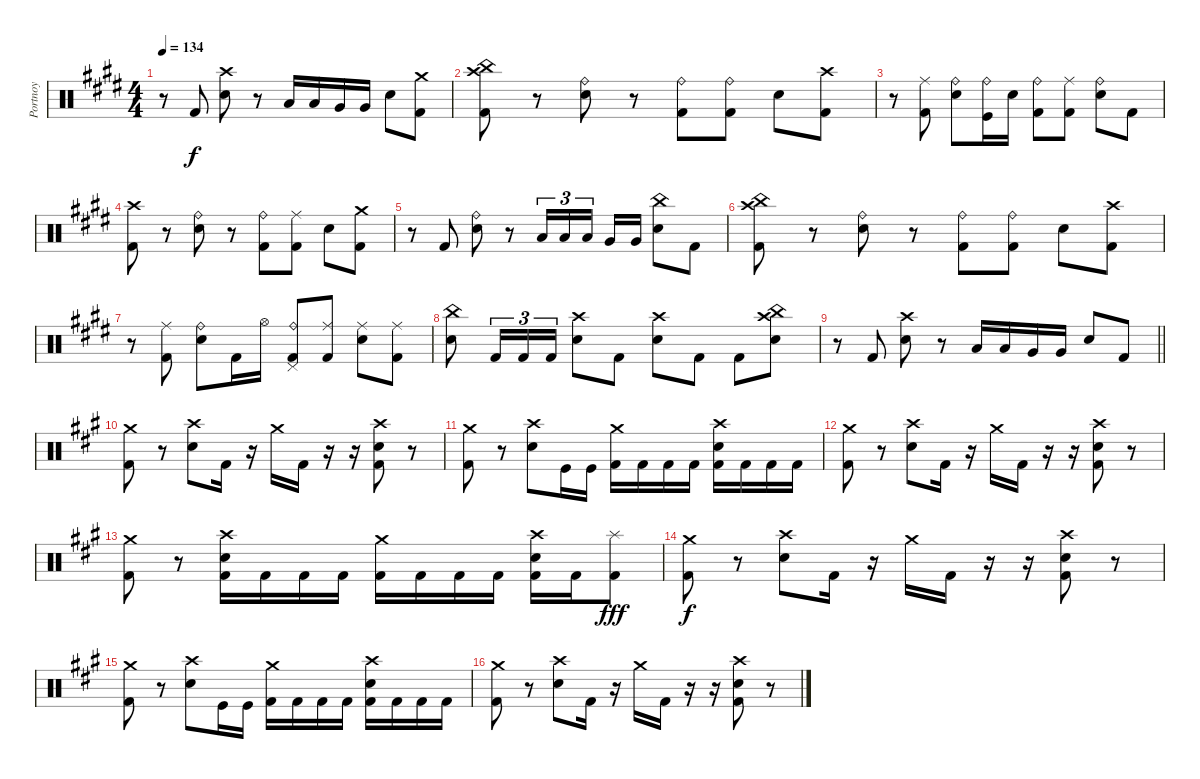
\track ("Portnoy" "Portnoy") {instrument percussion}
\staff {score}
\articulation defaults
\ts (4 4)
\tempo 134
\clef neutral
\ks c#minor
r.8{dy f} "Kick (hit) 2".8 ("Snare (hit) 2" "Crash high (hit)").8 r.8 "Low Tom (hit)".16 "Low Tom (hit)".16 "Very Low Tom (hit)".16 "Very Low Tom (hit)".16 "Snare (hit) 2".8 ("Kick (hit) 2" "Crash medium (hit)").8 |
("Kick (hit) 2" "Crash high (hit)" "China (hit)").8 r.8 ("Snare (hit) 2" "Ride (bell)").8 r.8 ("Kick (hit) 2" "Ride (bell)").8 ("Kick (hit) 2" "Ride (bell)").8 "Snare (hit) 2".8 ("Kick (hit) 2" "Crash high (hit)").8 |
r.8 ("Kick (hit) 2" "Ride (middle)").8 ("Snare (hit) 2" "Ride (bell)").8 ("Kick (hit)" "Ride (bell)").16 "Electric Snare (hit)".16 ("Kick (hit) 2" "Ride (bell)").8 ("Kick (hit) 2" "Ride (middle)").8 ("Snare (hit) 2" "Ride (bell)").8 "Kick (hit) 2".8 |
("Kick (hit) 2" "Crash high (hit)").8 r.8 ("Snare (hit) 2" "Ride (bell)").8 r.8 ("Kick (hit) 2" "Ride (bell)").8 ("Kick (hit) 2" "Ride (middle)").8 "Snare (hit) 2".8 ("Kick (hit) 2" "Crash medium (hit)").8 |
r.8 "Kick (hit) 2".8 ("Snare (hit) 2" "Ride (bell)").8 r.8 "Low Tom (hit)".16{tu (3 2)} "Low Tom (hit)".16{tu (3 2)} "Low Tom (hit)".16{tu (3 2) beam splitsecondary} "Very Low Tom (hit)".16 "Very Low Tom (hit)".16 ("Snare (hit) 2" "China (hit)").8 "Kick (hit) 2".8 |
("Kick (hit) 2" "Crash high (hit)" "China (hit)").8 r.8 ("Snare (hit) 2" "Ride (bell)").8 r.8 ("Kick (hit) 2" "Ride (bell)").8 ("Kick (hit) 2" "Ride (bell)").8 "Snare (hit) 2".8 ("Kick (hit) 2" "Crash high (hit)").8 |
r.8 ("Kick (hit) 2" "Ride (middle)").8 ("Snare (hit) 2" "Ride (bell)").8 "Kick (hit) 2".16 "Hi-Hat (open)".16 ("Kick (hit) 2" "Ride (bell)" "Pedal Hi-Hat (hit)").8 ("Kick (hit) 2" "Ride (middle)").8 ("Snare (hit) 2" "Ride (middle)").8 ("Kick (hit) 2" "Ride (middle)").8 |
("Snare (hit) 2" "China (hit)").8 "Kick (hit) 2".16{tu (3 2)} "Kick (hit) 2".16{tu (3 2)} "Kick (hit) 2".16{tu (3 2)} ("Snare (hit) 2" "Crash high (hit)").8 "Kick (hit) 2".8 ("Snare (hit) 2" "Crash high (hit)").8 "Kick (hit) 2".8 "Kick (hit) 2".8 ("Snare (hit) 2" "Crash high (hit)" "China (hit)").8 |
\barLineRight lightlight
r.8 "Kick (hit) 2".8 ("Snare (hit) 2" "Crash high (hit)").8 r.8 "Low Tom (hit)".16 "Low Tom (hit)".16 "Very Low Tom (hit)".16 "Very Low Tom (hit)".16 "Snare (hit) 2".8 "Kick (hit) 2".8 |
\ks f#minor
("Kick (hit) 2" "Crash medium (hit)").8 r.8 ("Crash high (hit)" "Snare (hit) 2").8 "Kick (hit) 2".16 r.16 "Crash medium (hit)".16 "Kick (hit) 2".16 r.16 r.16 ("Kick (hit) 2" "Crash high (hit)" "Snare (hit) 2").8 r.8 |
("Kick (hit) 2" "Crash medium (hit)").8 r.8 ("Crash high (hit)" "Snare (hit) 2").8 "Kick (hit)".16 "Kick (hit)".16 ("Kick (hit) 2" "Crash medium (hit)").16 "Kick (hit) 2".16 "Kick (hit) 2".16 "Kick (hit) 2".16 ("Kick (hit) 2" "Crash high (hit)" "Snare (hit) 2").16 "Kick (hit) 2".16 "Kick (hit) 2".16 "Kick (hit) 2".16 |
("Kick (hit) 2" "Crash medium (hit)").8 r.8 ("Crash high (hit)" "Snare (hit) 2").8 "Kick (hit) 2".16 r.16 "Crash medium (hit)".16 "Kick (hit) 2".16 r.16 r.16 ("Kick (hit) 2" "Crash high (hit)" "Snare (hit) 2").8 r.8 |
("Kick (hit) 2" "Crash medium (hit)").8 r.8 ("Kick (hit) 2" "Crash high (hit)" "Snare (hit) 2").16 "Kick (hit) 2".16 "Kick (hit) 2".16 "Kick (hit) 2".16 ("Kick (hit) 2" "Crash medium (hit)").16 "Kick (hit) 2".16 "Kick (hit) 2".16 "Kick (hit) 2".16 ("Kick (hit) 2" "Crash high (hit)" "Snare (hit) 2").16 "Kick (hit) 2".16 ("Kick (hit) 2" "Splash (hit)").8{dy fff} |
("Kick (hit) 2" "Crash medium (hit)").8{dy f} r.8 ("Crash high (hit)" "Snare (hit) 2").8 "Kick (hit) 2".16 r.16 "Crash medium (hit)".16 "Kick (hit) 2".16 r.16 r.16 ("Kick (hit) 2" "Crash high (hit)" "Snare (hit) 2").8 r.8 |
("Kick (hit) 2" "Crash medium (hit)").8 r.8 ("Crash high (hit)" "Snare (hit) 2").8 "Kick (hit)".16 "Kick (hit)".16 ("Kick (hit) 2" "Crash medium (hit)").16 "Kick (hit) 2".16 "Kick (hit) 2".16 "Kick (hit) 2".16 ("Kick (hit) 2" "Crash high (hit)" "Snare (hit) 2").16 "Kick (hit) 2".16 "Kick (hit) 2".16 "Kick (hit) 2".16 |
("Kick (hit) 2" "Crash medium (hit)").8 r.8 ("Crash high (hit)" "Snare (hit) 2").8 "Kick (hit) 2".16 r.16 "Crash medium (hit)".16 "Kick (hit) 2".16 r.16 r.16 ("Kick (hit) 2" "Crash high (hit)" "Snare (hit) 2").8 r.8
